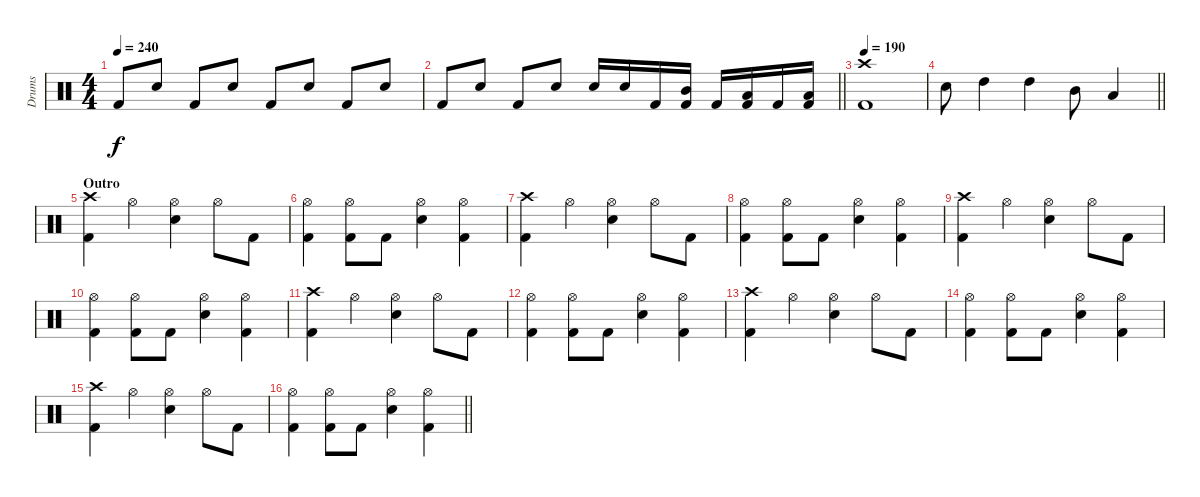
\track ("Drums" "Drums") {instrument percussion}
\staff {score}
\articulation defaults
\ts (4 4)
\tempo 240
\clef neutral
\ks c "Kick (hit) 2".8{dy f} "Snare (hit) 2".8 "Kick (hit) 2".8 "Snare (hit) 2".8 "Kick (hit) 2".8 "Snare (hit) 2".8 "Kick (hit) 2".8 "Snare (hit) 2".8
|
\barLineRight lightlight "Kick (hit) 2".8 "Snare (hit) 2".8 "Kick (hit) 2".8 "Snare (hit) 2".8 "Snare (hit) 2".16 "Snare (hit) 2".16 "Kick (hit) 2".16
("Kick (hit) 2" "Mid Tom (hit)").16 "Kick (hit) 2".16 ("Kick (hit) 2" "Low Tom (hit)").16 "Kick (hit) 2".16 ("Kick (hit) 2" "Low Tom (hit)").16 |
\tempo 190
("Crash high (hit)" "Kick (hit) 2").1 |
\barLineRight lightlight "Snare (hit) 2".8 "High Tom (hit)".4 "High Tom (hit)".4 "Mid Tom (hit)".8 "Low Tom (hit)".4
|
\section ("" "Outro")
("Crash high (hit)" "Kick (hit) 2").4 "Hi-Hat (open)".4 ("Hi-Hat (open)" "Snare (hit) 2").4 "Hi-Hat (open)".8 "Kick (hit) 2".8 |
("Hi-Hat (open)" "Kick (hit) 2").4 ("Hi-Hat (open)" "Kick (hit) 2").8 "Kick (hit) 2".8 ("Hi-Hat (open)" "Snare (hit) 2").4 ("Hi-Hat (open)" "Kick (hit) 2").4 |
("Crash high (hit)" "Kick (hit) 2").4 "Hi-Hat (open)".4 ("Hi-Hat (open)" "Snare (hit) 2").4 "Hi-Hat (open)".8 "Kick (hit) 2".8 |
("Hi-Hat (open)" "Kick (hit) 2").4 ("Hi-Hat (open)" "Kick (hit) 2").8 "Kick (hit) 2".8 ("Hi-Hat (open)" "Snare (hit) 2").4 ("Hi-Hat (open)" "Kick (hit) 2").4 |
("Crash high (hit)" "Kick (hit) 2").4{volume 5} "Hi-Hat (open)".4 ("Hi-Hat (open)" "Snare (hit) 2").4 "Hi-Hat (open)".8 "Kick (hit) 2".8 |
("Hi-Hat (open)" "Kick (hit) 2").4 ("Hi-Hat (open)" "Kick (hit) 2").8 "Kick (hit) 2".8 ("Hi-Hat (open)" "Snare (hit) 2").4 ("Hi-Hat (open)" "Kick (hit) 2").4 |
("Crash high (hit)" "Kick (hit) 2").4 "Hi-Hat (open)".4 ("Hi-Hat (open)" "Snare (hit) 2").4 "Hi-Hat (open)".8 "Kick (hit) 2".8 |
("Hi-Hat (open)" "Kick (hit) 2").4 ("Hi-Hat (open)" "Kick (hit) 2").8 "Kick (hit) 2".8 ("Hi-Hat (open)" "Snare (hit) 2").4 ("Hi-Hat (open)" "Kick (hit) 2").4 |
("Crash high (hit)" "Kick (hit) 2").4{volume 0} "Hi-Hat (open)".4 ("Hi-Hat (open)" "Snare (hit) 2").4 "Hi-Hat (open)".8 "Kick (hit) 2".8 |
("Hi-Hat (open)" "Kick (hit) 2").4 ("Hi-Hat (open)" "Kick (hit) 2").8 "Kick (hit) 2".8 ("Hi-Hat (open)" "Snare (hit) 2").4 ("Hi-Hat (open)" "Kick (hit) 2").4 |
("Crash high (hit)" "Kick (hit) 2").4 "Hi-Hat (open)".4 ("Hi-Hat (open)" "Snare (hit) 2").4 "Hi-Hat (open)".8 "Kick (hit) 2".8 |
\barLineRight lightlight
("Hi-Hat (open)" "Kick (hit) 2").4 ("Hi-Hat (open)" "Kick (hit) 2").8 "Kick (hit) 2".8 ("Hi-Hat (open)" "Snare (hit) 2").4 ("Hi-Hat (open)" "Kick (hit) 2").4
